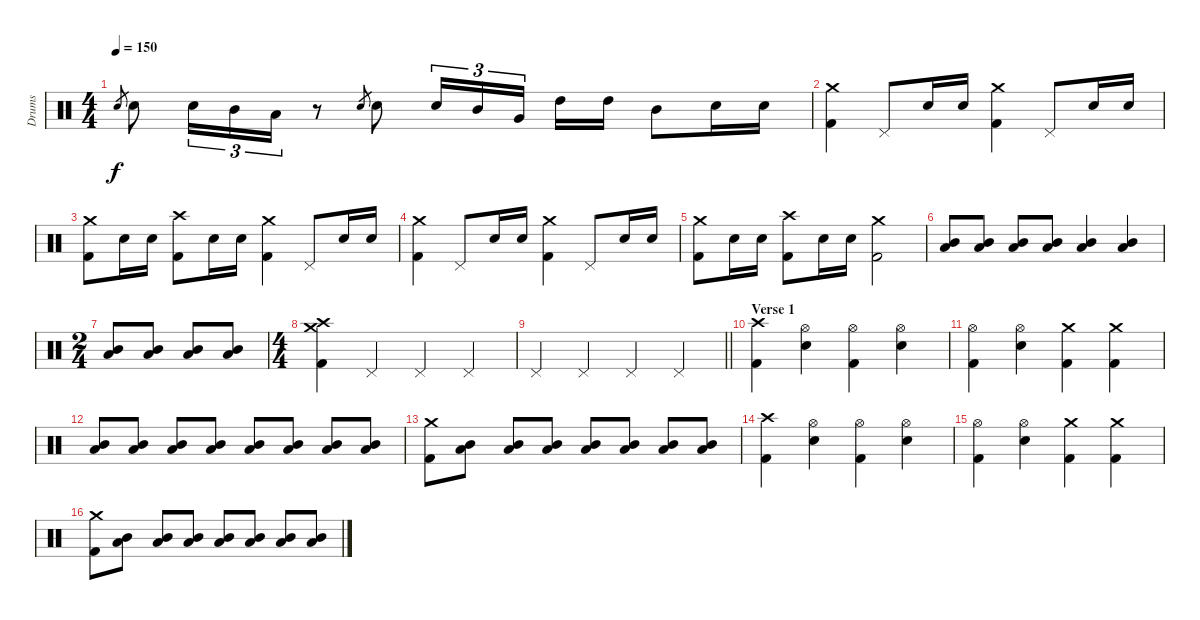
\track ("Drums" "Drums") {instrument percussion}
\staff {score}
\articulation defaults
\ts (4 4)
\tempo 150
\clef neutral
\ks c "Electric Snare (hit)".8{gr dy f} "Electric Snare (hit)".8 "Electric Snare (hit)".16{tu (3 2)} "Mid Tom (hit)".16{tu (3 2)} "Low Tom (hit)".16{tu (3 2)}
r.8 "Electric Snare (hit)".8{gr} "Electric Snare (hit)".8 "Electric Snare (hit)".16{tu (3 2)} "Mid Tom (hit)".16{tu (3 2)} "Very Low Tom (hit)".16{tu (3 2) beam splitsecondary} "High Tom (hit)".16 "High Tom (hit)".16 "Mid Tom (hit)".8 "Electric Snare (hit)".16 "Electric Snare (hit)".16 |
("Crash medium (hit)" "Kick (hit) 2").4 "Pedal Hi-Hat (hit)".8 "Electric Snare (hit)".16 "Electric Snare (hit)".16 ("Crash medium (hit)" "Kick (hit) 2").4 "Pedal Hi-Hat (hit)".8 "Electric Snare (hit)".16 "Electric Snare (hit)".16 |
("Crash medium (hit)" "Kick (hit) 2").8 "Electric Snare (hit)".16 "Electric Snare (hit)".16 ("Crash high (hit)" "Kick (hit) 2").8 "Electric Snare (hit)".16 "Electric Snare (hit)".16 ("Crash medium (hit)" "Kick (hit) 2").4 "Pedal Hi-Hat (hit)".8 "Electric Snare (hit)".16 "Electric Snare (hit)".16 |
("Crash medium (hit)" "Kick (hit) 2").4 "Pedal Hi-Hat (hit)".8 "Electric Snare (hit)".16 "Electric Snare (hit)".16 ("Crash medium (hit)" "Kick (hit) 2").4 "Pedal Hi-Hat (hit)".8 "Electric Snare (hit)".16 "Electric Snare (hit)".16 |
("Crash medium (hit)" "Kick (hit) 2").8 "Electric Snare (hit)".16 "Electric Snare (hit)".16 ("Crash high (hit)" "Kick (hit) 2").8 "Electric Snare (hit)".16 "Electric Snare (hit)".16 ("Crash medium (hit)" "Kick (hit) 2").2 |
("Mid Tom (hit)" "Low Tom (hit)").8 ("Mid Tom (hit)" "Low Tom (hit)").8 ("Mid Tom (hit)" "Low Tom (hit)").8 ("Mid Tom (hit)" "Low Tom (hit)").8 ("Mid Tom (hit)" "Low Tom (hit)").4 ("Low Tom (hit)" "Mid Tom (hit)").4 |
\ts (2 4)
("Low Tom (hit)" "Mid Tom (hit)").8 ("Low Tom (hit)" "Mid Tom (hit)").8 ("Mid Tom (hit)" "Low Tom (hit)").8 ("Mid Tom (hit)" "Low Tom (hit)").8 |
\ts (4 4)
("Crash high (hit)" "Kick (hit) 2" "Crash medium (hit)").4 "Pedal Hi-Hat (hit)".4 "Pedal Hi-Hat (hit)".4 "Pedal Hi-Hat (hit)".4 |
\barLineRight lightlight "Pedal Hi-Hat (hit)".4 "Pedal Hi-Hat (hit)".4 "Pedal Hi-Hat (hit)".4 "Pedal Hi-Hat (hit)".4
|
\section ("" "Verse 1")
("Crash high (hit)" "Kick (hit) 2").4 ("Hi-Hat (open)" "Electric Snare (hit)").4 ("Hi-Hat (open)" "Kick (hit) 2").4 ("Hi-Hat (open)" "Electric Snare (hit)").4 |
("Hi-Hat (open)" "Kick (hit) 2").4 ("Electric Snare (hit)" "Hi-Hat (open)").4 ("Crash medium (hit)" "Kick (hit) 2").4 ("Crash medium (hit)" "Kick (hit) 2").4 |
("Low Tom (hit)" "Mid Tom (hit)").8 ("Low Tom (hit)" "Mid Tom (hit)").8 ("Low Tom (hit)" "Mid Tom (hit)").8 ("Low Tom (hit)" "Mid Tom (hit)").8 ("Low Tom (hit)" "Mid Tom (hit)").8 ("Low Tom (hit)" "Mid Tom (hit)").8 ("Low Tom (hit)" "Mid Tom (hit)").8 ("Low Tom (hit)" "Mid Tom (hit)").8 |
("Crash medium (hit)" "Kick (hit) 2").8 ("Low Tom (hit)" "Mid Tom (hit)").8 ("Low Tom (hit)" "Mid Tom (hit)").8 ("Low Tom (hit)" "Mid Tom (hit)").8 ("Low Tom (hit)" "Mid Tom (hit)").8 ("Low Tom (hit)" "Mid Tom (hit)").8 ("Low Tom (hit)" "Mid Tom (hit)").8 ("Low Tom (hit)" "Mid Tom (hit)").8 |
("Crash high (hit)" "Kick (hit) 2").4 ("Hi-Hat (open)" "Electric Snare (hit)").4 ("Hi-Hat (open)" "Kick (hit) 2").4 ("Hi-Hat (open)" "Electric Snare (hit)").4 |
("Hi-Hat (open)" "Kick (hit) 2").4 ("Electric Snare (hit)" "Hi-Hat (open)").4 ("Crash medium (hit)" "Kick (hit) 2").4 ("Crash medium (hit)" "Kick (hit) 2").4 |
("Crash medium (hit)" "Kick (hit) 2").8 ("Low Tom (hit)" "Mid Tom (hit)").8 ("Low Tom (hit)" "Mid Tom (hit)").8 ("Low Tom (hit)" "Mid Tom (hit)").8 ("Low Tom (hit)" "Mid Tom (hit)").8 ("Low Tom (hit)" "Mid Tom (hit)").8 ("Low Tom (hit)" "Mid Tom (hit)").8 ("Low Tom (hit)" "Mid Tom (hit)").8
